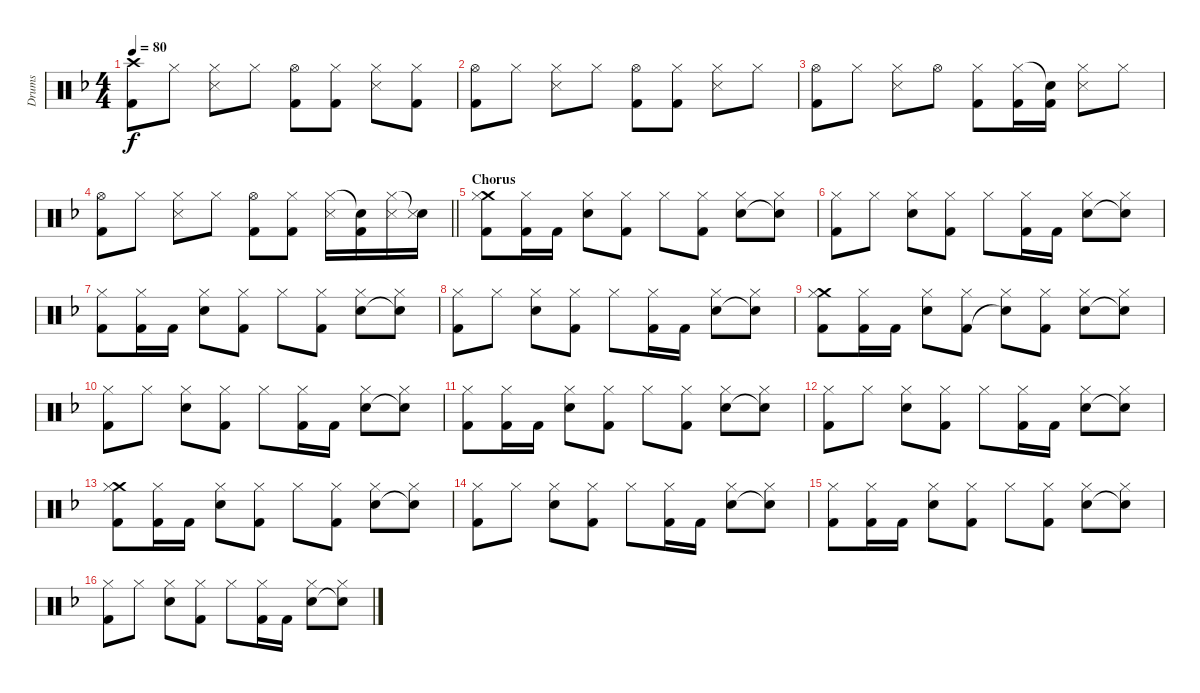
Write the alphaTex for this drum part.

\track ("Drums" "Drums") {instrument percussion}
\staff {score}
\articulation defaults
\ts (4 4)
\tempo 80
\clef neutral
\ks f
("Crash high (hit)" "Kick (hit) 2").8{dy f} "Hi-Hat (closed)".8 ("Hi-Hat (closed)" "Snare (side stick) 3").8 "Hi-Hat (closed)".8 ("Hi-Hat (open)" "Kick (hit) 2").8 ("Hi-Hat (closed)" "Kick (hit) 2").8 ("Hi-Hat (closed)" "Snare (side stick) 3").8 ("Hi-Hat (closed)" "Kick (hit) 2").8 |
("Hi-Hat (open)" "Kick (hit) 2").8 "Hi-Hat (closed)".8 ("Hi-Hat (closed)" "Snare (side stick) 3").8 "Hi-Hat (closed)".8 ("Hi-Hat (open)" "Kick (hit) 2").8 ("Hi-Hat (closed)" "Kick (hit) 2").8 ("Hi-Hat (closed)" "Snare (side stick) 3").8 "Hi-Hat (closed)".8 |
("Hi-Hat (open)" "Kick (hit) 2").8 "Hi-Hat (closed)".8 ("Hi-Hat (closed)" "Snare (side stick) 3").8 "Hi-Hat (open)".8 ("Hi-Hat (closed)" "Kick (hit) 2").8 ("Hi-Hat (closed)" "Kick (hit) 2").16 ("Snare (hit)"{t} "Kick (hit) 2").16 ("Hi-Hat (closed)" "Snare (side stick) 3").8 "Hi-Hat (closed)".8 |
\barLineRight lightlight
("Hi-Hat (open)" "Kick (hit) 2").8 "Hi-Hat (closed)".8 ("Hi-Hat (closed)" "Snare (side stick) 3").8 "Hi-Hat (closed)".8 ("Hi-Hat (open)" "Kick (hit) 2").8 ("Hi-Hat (closed)" "Kick (hit) 2").8 ("Hi-Hat (closed)" "Snare (side stick) 3").16 ("Snare (hit)"{t} "Kick (hit) 2").16 ("Hi-Hat (closed)" "Snare (side stick) 3").16 ("Snare (hit)"{t} "Snare (side stick) 3").16 |
\section ("" "Chorus")
("Crash medium (hit)" "Hi-Hat (closed)" "Kick (hit) 2").8 ("Hi-Hat (closed)" "Kick (hit) 2").16 "Kick (hit) 2".16 ("Hi-Hat (closed)" "Snare (hit) 2").8 ("Hi-Hat (closed)" "Kick (hit) 2").8 "Hi-Hat (closed)".8 ("Hi-Hat (closed)" "Kick (hit) 2").8 ("Hi-Hat (closed)" "Snare (hit) 2").8 ("Hi-Hat (closed)" "Snare (hit) 2"{t}).8 |
("Hi-Hat (closed)" "Kick (hit) 2").8 "Hi-Hat (closed)".8 ("Hi-Hat (closed)" "Snare (hit) 2").8 ("Hi-Hat (closed)" "Kick (hit) 2").8 "Hi-Hat (closed)".8 ("Hi-Hat (closed)" "Kick (hit) 2").16 "Kick (hit) 2".16 ("Hi-Hat (closed)" "Snare (hit) 2").8 ("Hi-Hat (closed)" "Snare (hit)"{t}).8 |
("Hi-Hat (closed)" "Kick (hit) 2").8 ("Hi-Hat (closed)" "Kick (hit) 2").16 "Kick (hit) 2".16 ("Hi-Hat (closed)" "Snare (hit) 2").8 ("Hi-Hat (closed)" "Kick (hit) 2").8 "Hi-Hat (closed)".8 ("Hi-Hat (closed)" "Kick (hit) 2").8 ("Hi-Hat (closed)" "Snare (hit) 2").8 ("Hi-Hat (closed)" "Snare (hit) 2"{t}).8 |
("Hi-Hat (closed)" "Kick (hit) 2").8 "Hi-Hat (closed)".8 ("Hi-Hat (closed)" "Snare (hit) 2").8 ("Hi-Hat (closed)" "Kick (hit) 2").8 "Hi-Hat (closed)".8 ("Hi-Hat (closed)" "Kick (hit) 2").16 "Kick (hit) 2".16 ("Hi-Hat (closed)" "Snare (hit) 2").8 ("Hi-Hat (closed)" "Snare (hit)"{t}).8 |
("Crash medium (hit)" "Hi-Hat (closed)" "Kick (hit) 2").8 ("Hi-Hat (closed)" "Kick (hit) 2").16 "Kick (hit) 2".16 ("Hi-Hat (closed)" "Snare (hit) 2").8 ("Hi-Hat (closed)" "Kick (hit) 2").8 ("Hi-Hat (closed)" "Snare (hit) 2"{t}).8 ("Hi-Hat (closed)" "Kick (hit) 2").8 ("Hi-Hat (closed)" "Snare (hit) 2").8 ("Hi-Hat (closed)" "Snare (hit) 2"{t}).8 |
("Hi-Hat (closed)" "Kick (hit) 2").8 "Hi-Hat (closed)".8 ("Hi-Hat (closed)" "Snare (hit) 2").8 ("Hi-Hat (closed)" "Kick (hit) 2").8 "Hi-Hat (closed)".8 ("Hi-Hat (closed)" "Kick (hit) 2").16 "Kick (hit) 2".16 ("Hi-Hat (closed)" "Snare (hit) 2").8 ("Hi-Hat (closed)" "Snare (hit)"{t}).8 |
("Hi-Hat (closed)" "Kick (hit) 2").8 ("Hi-Hat (closed)" "Kick (hit) 2").16 "Kick (hit) 2".16 ("Hi-Hat (closed)" "Snare (hit) 2").8 ("Hi-Hat (closed)" "Kick (hit) 2").8 "Hi-Hat (closed)".8 ("Hi-Hat (closed)" "Kick (hit) 2").8 ("Hi-Hat (closed)" "Snare (hit) 2").8 ("Hi-Hat (closed)" "Snare (hit) 2"{t}).8 |
("Hi-Hat (closed)" "Kick (hit) 2").8 "Hi-Hat (closed)".8 ("Hi-Hat (closed)" "Snare (hit) 2").8 ("Hi-Hat (closed)" "Kick (hit) 2").8 "Hi-Hat (closed)".8 ("Hi-Hat (closed)" "Kick (hit) 2").16 "Kick (hit) 2".16 ("Hi-Hat (closed)" "Snare (hit) 2").8 ("Hi-Hat (closed)" "Snare (hit)"{t}).8 |
("Crash medium (hit)" "Hi-Hat (closed)" "Kick (hit) 2").8 ("Hi-Hat (closed)" "Kick (hit) 2").16 "Kick (hit) 2".16 ("Hi-Hat (closed)" "Snare (hit) 2").8 ("Hi-Hat (closed)" "Kick (hit) 2").8 "Hi-Hat (closed)".8 ("Hi-Hat (closed)" "Kick (hit) 2").8 ("Hi-Hat (closed)" "Snare (hit) 2").8 ("Hi-Hat (closed)" "Snare (hit) 2"{t}).8 |
("Hi-Hat (closed)" "Kick (hit) 2").8 "Hi-Hat (closed)".8 ("Hi-Hat (closed)" "Snare (hit) 2").8 ("Hi-Hat (closed)" "Kick (hit) 2").8 "Hi-Hat (closed)".8 ("Hi-Hat (closed)" "Kick (hit) 2").16 "Kick (hit) 2".16 ("Hi-Hat (closed)" "Snare (hit) 2").8 ("Hi-Hat (closed)" "Snare (hit)"{t}).8 |
("Hi-Hat (closed)" "Kick (hit) 2").8 ("Hi-Hat (closed)" "Kick (hit) 2").16 "Kick (hit) 2".16 ("Hi-Hat (closed)" "Snare (hit) 2").8 ("Hi-Hat (closed)" "Kick (hit) 2").8 "Hi-Hat (closed)".8 ("Hi-Hat (closed)" "Kick (hit) 2").8 ("Hi-Hat (closed)" "Snare (hit) 2").8 ("Hi-Hat (closed)" "Snare (hit) 2"{t}).8 |
("Hi-Hat (closed)" "Kick (hit) 2").8 "Hi-Hat (closed)".8 ("Hi-Hat (closed)" "Snare (hit) 2").8 ("Hi-Hat (closed)" "Kick (hit) 2").8 "Hi-Hat (closed)".8 ("Hi-Hat (closed)" "Kick (hit) 2").16 "Kick (hit) 2".16 ("Hi-Hat (closed)" "Snare (hit) 2").8 ("Hi-Hat (closed)" "Snare (hit)"{t}).8
